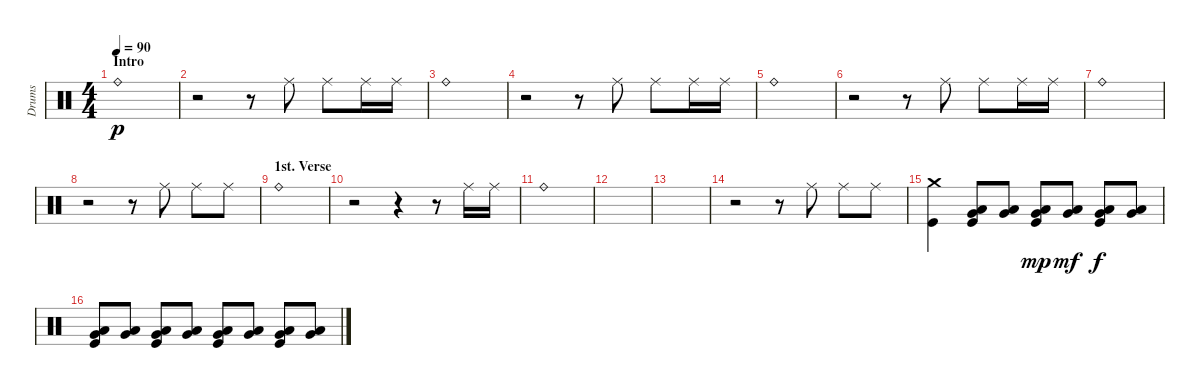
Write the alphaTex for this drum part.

\track ("Drums" "Drums") {instrument percussion}
\staff {score}
\articulation defaults
\ts (4 4)
\section ("" "Intro")
\tempo 90
\clef neutral
\ks c "Ride (bell)".1{dy p}
|
r.2 r.8 "Ride (middle)".8 "Ride (middle)".8 "Ride (middle)".16 "Ride (middle)".16 |
"Ride (bell)".1 |
r.2 r.8 "Ride (middle)".8 "Ride (middle)".8 "Ride (middle)".16 "Ride (middle)".16 |
"Ride (bell)".1 |
r.2 r.8 "Ride (middle)".8 "Ride (middle)".8 "Ride (middle)".16 "Ride (middle)".16 |
"Ride (bell)".1 |
r.2 r.8 "Ride (middle)".8 "Ride (middle)".8 "Ride (middle)".8 |
\section ("" "1st. Verse")
"Ride (bell)".1 |
r.2 r.4 r.8 "Ride (middle)".16 "Ride (middle)".16 |
"Ride (bell)".1 |
|
|
r.2 r.8 "Ride (middle)".8 "Ride (middle)".8 "Ride (middle)".8 |
("Crash medium (hit)" "Kick (hit)").4 ("Low Tom (hit)" "Very Low Tom (hit)" "Kick (hit)").8 ("Low Tom (hit)" "Very Low Tom (hit)").8 ("Low Tom (hit)" "Very Low Tom (hit)" "Kick (hit)").8{dy mp} ("Low Tom (hit)" "Very Low Tom (hit)").8{dy mf} ("Low Tom (hit)" "Very Low Tom (hit)" "Kick (hit)").8{dy f} ("Low Tom (hit)" "Very Low Tom (hit)").8 |
("Low Tom (hit)" "Very Low Tom (hit)" "Kick (hit)").8 ("Low Tom (hit)" "Very Low Tom (hit)").8 ("Low Tom (hit)" "Very Low Tom (hit)" "Kick (hit)").8 ("Low Tom (hit)" "Very Low Tom (hit)").8 ("Low Tom (hit)" "Very Low Tom (hit)" "Kick (hit)").8 ("Low Tom (hit)" "Very Low Tom (hit)").8 ("Low Tom (hit)" "Very Low Tom (hit)" "Kick (hit)").8 ("Low Tom (hit)" "Very Low Tom (hit)").8
